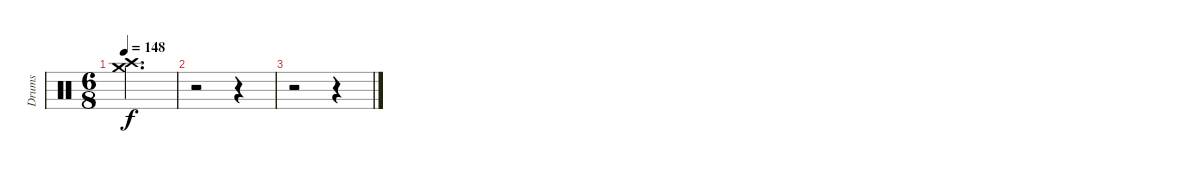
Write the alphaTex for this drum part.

\track ("Drums" "Drums") {instrument percussion}
\staff {score}
\articulation defaults
\ts (6 8)
\tempo 148
\clef neutral
\ks c
("Crash high (hit)" "Crash medium (hit)").2{d dy f} |
r.2 r.4 |
r.2 r.4
